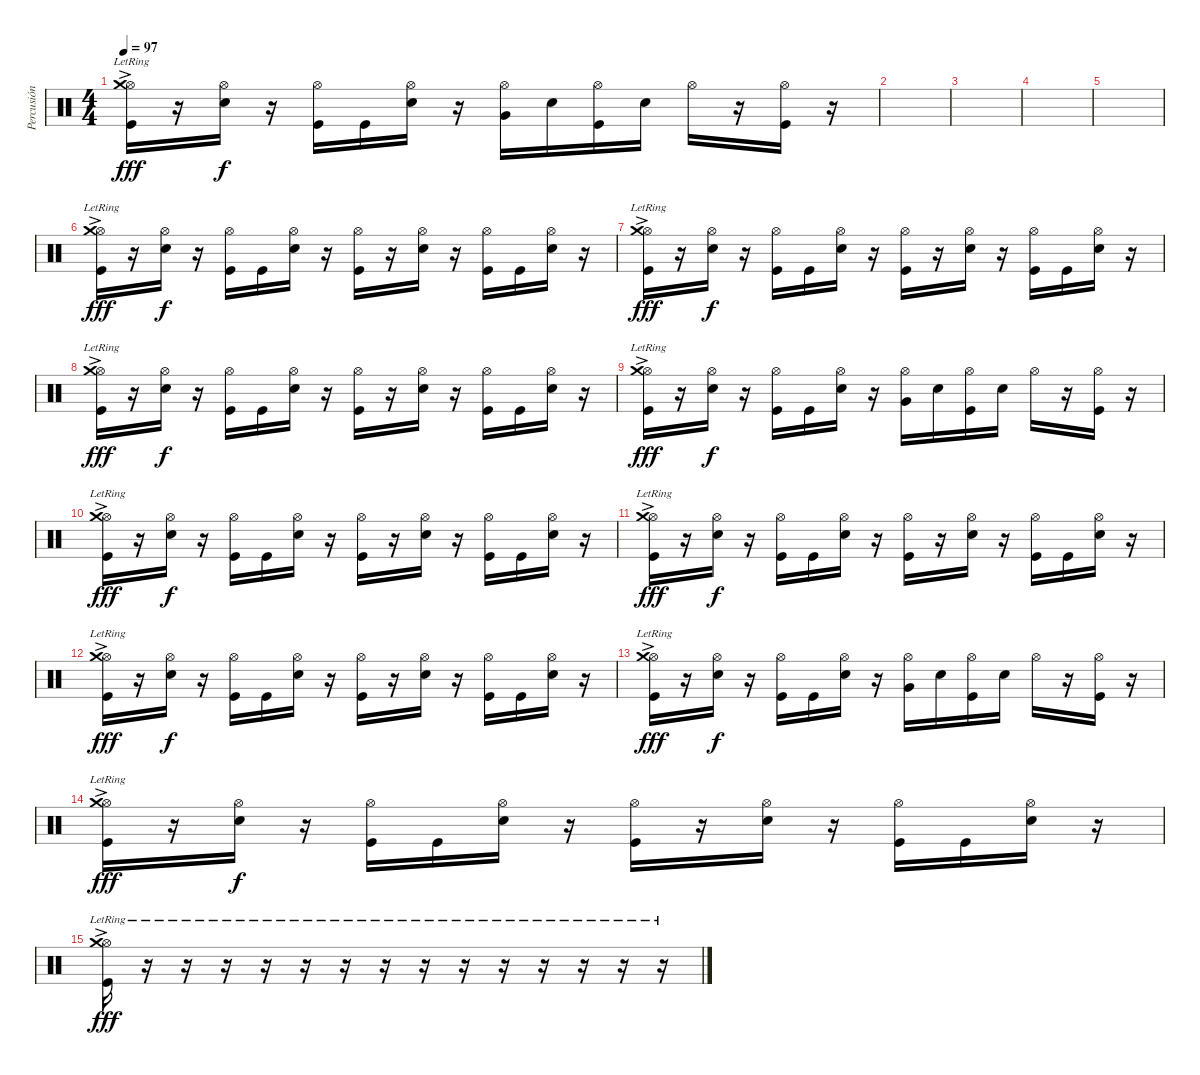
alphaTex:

\track ("Percusión" "Percusión") {instrument percussion}
\staff {score}
\articulation defaults
\ts (4 4)
\tempo 97
\clef neutral
\ks c
("Hi-Hat (open)" "Crash medium (hit)"{ac lr} "Kick (hit)").16{dy fff} r.16 ("Hi-Hat (open)" "Snare (hit) 2").16{dy f} r.16 ("Hi-Hat (open)" "Kick (hit)").16 "Kick (hit)".16 ("Hi-Hat (open)" "Electric Snare (hit)").16 r.16 ("Hi-Hat (open)" "Very Low Tom (hit)").16 "Electric Snare (hit)".16 ("Hi-Hat (open)" "Kick (hit)").16 "Electric Snare (hit)".16 "Hi-Hat (open)".16 r.16 ("Hi-Hat (open)" "Kick (hit)").16 r.16 |
|
|
|
|
("Hi-Hat (open)" "Crash medium (hit)"{ac lr} "Kick (hit)").16{dy fff} r.16 ("Hi-Hat (open)" "Snare (hit) 2").16{dy f} r.16 ("Hi-Hat (open)" "Kick (hit)").16 "Kick (hit)".16 ("Hi-Hat (open)" "Snare (hit) 2").16 r.16 ("Hi-Hat (open)" "Kick (hit)").16 r.16 ("Hi-Hat (open)" "Snare (hit) 2").16 r.16 ("Hi-Hat (open)" "Kick (hit)").16 "Kick (hit)".16 ("Hi-Hat (open)" "Snare (hit) 2").16 r.16 |
("Hi-Hat (open)" "Crash medium (hit)"{ac lr} "Kick (hit)").16{dy fff} r.16 ("Hi-Hat (open)" "Snare (hit) 2").16{dy f} r.16 ("Hi-Hat (open)" "Kick (hit)").16 "Kick (hit)".16 ("Hi-Hat (open)" "Snare (hit) 2").16 r.16 ("Hi-Hat (open)" "Kick (hit)").16 r.16 ("Hi-Hat (open)" "Snare (hit) 2").16 r.16 ("Hi-Hat (open)" "Kick (hit)").16 "Kick (hit)".16 ("Hi-Hat (open)" "Snare (hit) 2").16 r.16 |
("Hi-Hat (open)" "Crash medium (hit)"{ac lr} "Kick (hit)").16{dy fff} r.16 ("Hi-Hat (open)" "Snare (hit) 2").16{dy f} r.16 ("Hi-Hat (open)" "Kick (hit)").16 "Kick (hit)".16 ("Hi-Hat (open)" "Snare (hit) 2").16 r.16 ("Hi-Hat (open)" "Kick (hit)").16 r.16 ("Hi-Hat (open)" "Snare (hit) 2").16 r.16 ("Hi-Hat (open)" "Kick (hit)").16 "Kick (hit)".16 ("Hi-Hat (open)" "Snare (hit) 2").16 r.16 |
("Hi-Hat (open)" "Crash medium (hit)"{ac lr} "Kick (hit)").16{dy fff} r.16 ("Hi-Hat (open)" "Snare (hit) 2").16{dy f} r.16 ("Hi-Hat (open)" "Kick (hit)").16 "Kick (hit)".16 ("Hi-Hat (open)" "Electric Snare (hit)").16 r.16 ("Hi-Hat (open)" "Very Low Tom (hit)").16 "Electric Snare (hit)".16 ("Hi-Hat (open)" "Kick (hit)").16 "Electric Snare (hit)".16 "Hi-Hat (open)".16 r.16 ("Hi-Hat (open)" "Kick (hit)").16 r.16 |
("Hi-Hat (open)" "Crash medium (hit)"{ac lr} "Kick (hit)").16{dy fff} r.16 ("Hi-Hat (open)" "Snare (hit) 2").16{dy f} r.16 ("Hi-Hat (open)" "Kick (hit)").16 "Kick (hit)".16 ("Hi-Hat (open)" "Snare (hit) 2").16 r.16 ("Hi-Hat (open)" "Kick (hit)").16 r.16 ("Hi-Hat (open)" "Snare (hit) 2").16 r.16 ("Hi-Hat (open)" "Kick (hit)").16 "Kick (hit)".16 ("Hi-Hat (open)" "Snare (hit) 2").16 r.16 |
("Hi-Hat (open)" "Crash medium (hit)"{ac lr} "Kick (hit)").16{dy fff} r.16 ("Hi-Hat (open)" "Snare (hit) 2").16{dy f} r.16 ("Hi-Hat (open)" "Kick (hit)").16 "Kick (hit)".16 ("Hi-Hat (open)" "Snare (hit) 2").16 r.16 ("Hi-Hat (open)" "Kick (hit)").16 r.16 ("Hi-Hat (open)" "Snare (hit) 2").16 r.16 ("Hi-Hat (open)" "Kick (hit)").16 "Kick (hit)".16 ("Hi-Hat (open)" "Snare (hit) 2").16 r.16 |
("Hi-Hat (open)" "Crash medium (hit)"{ac lr} "Kick (hit)").16{dy fff} r.16 ("Hi-Hat (open)" "Snare (hit) 2").16{dy f} r.16 ("Hi-Hat (open)" "Kick (hit)").16 "Kick (hit)".16 ("Hi-Hat (open)" "Snare (hit) 2").16 r.16 ("Hi-Hat (open)" "Kick (hit)").16 r.16 ("Hi-Hat (open)" "Snare (hit) 2").16 r.16 ("Hi-Hat (open)" "Kick (hit)").16 "Kick (hit)".16 ("Hi-Hat (open)" "Snare (hit) 2").16 r.16 |
("Hi-Hat (open)" "Crash medium (hit)"{ac lr} "Kick (hit)").16{dy fff} r.16 ("Hi-Hat (open)" "Snare (hit) 2").16{dy f} r.16 ("Hi-Hat (open)" "Kick (hit)").16 "Kick (hit)".16 ("Hi-Hat (open)" "Electric Snare (hit)").16 r.16 ("Hi-Hat (open)" "Very Low Tom (hit)").16 "Electric Snare (hit)".16 ("Hi-Hat (open)" "Kick (hit)").16 "Electric Snare (hit)".16 "Hi-Hat (open)".16 r.16 ("Hi-Hat (open)" "Kick (hit)").16 r.16 |
("Hi-Hat (open)" "Crash medium (hit)"{ac lr} "Kick (hit)").16{dy fff} r.16 ("Hi-Hat (open)" "Snare (hit) 2").16{dy f} r.16 ("Hi-Hat (open)" "Kick (hit)").16 "Kick (hit)".16 ("Hi-Hat (open)" "Snare (hit) 2").16 r.16 ("Hi-Hat (open)" "Kick (hit)").16 r.16 ("Hi-Hat (open)" "Snare (hit) 2").16 r.16 ("Hi-Hat (open)" "Kick (hit)").16 "Kick (hit)".16 ("Hi-Hat (open)" "Snare (hit) 2").16 r.16 |
("Hi-Hat (open)" "Crash medium (hit)"{ac lr} "Kick (hit)").16{dy fff} r.16 r.16 r.16 r.16 r.16 r.16 r.16 r.16 r.16 r.16 r.16 r.16 r.16 r.16
